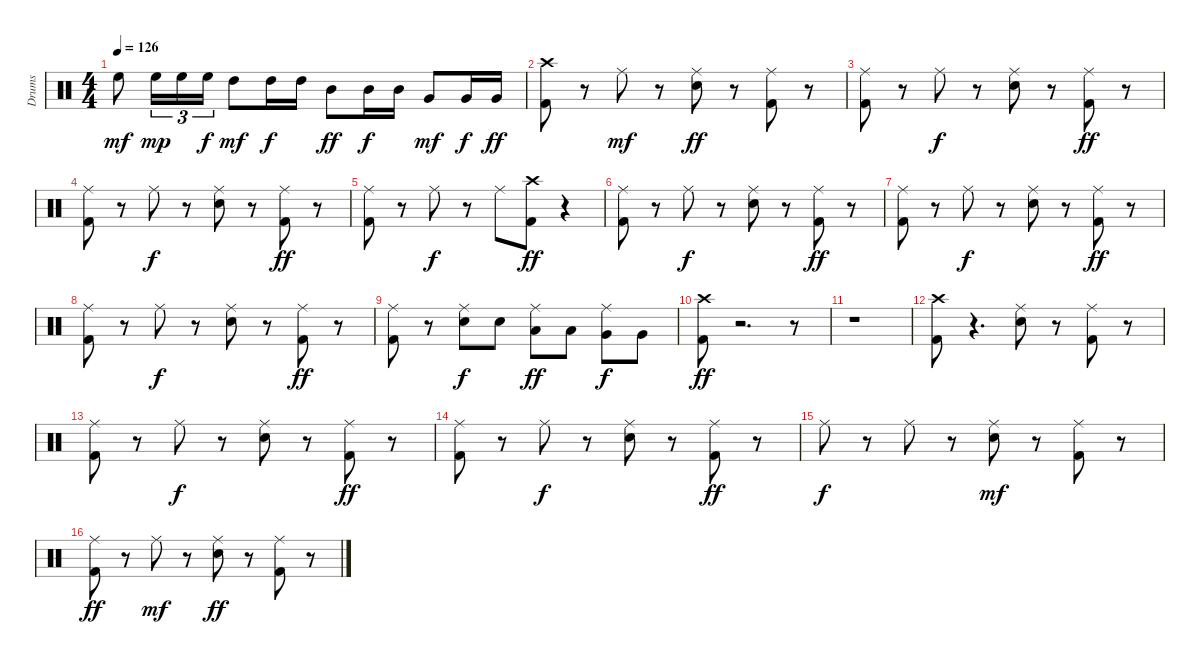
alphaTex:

\track ("Drums" "Drums") {instrument percussion}
\staff {score}
\articulation defaults
\ts (4 4)
\tempo 126
\clef neutral
\ks c "High Floor Tom (hit)".8{dy mf} "High Floor Tom (hit)".16{tu (3 2) dy mp} "High Floor Tom (hit)".16{tu (3 2)} "High Floor Tom (hit)".16{tu (3 2) dy f} "High Tom (hit)".8{dy mf} "High Tom (hit)".16{dy f} "High Tom (hit)".16 "Mid Tom (hit)".8{dy ff} "Mid Tom (hit)".16{dy f} "Mid Tom (hit)".16 "Very Low Tom (hit)".8{dy mf} "Very Low Tom (hit)".16{dy f} "Very Low Tom (hit)".16{dy ff}
|
("Kick (hit) 2" "Crash high (hit)").8 r.8 "Ride (middle)".8{dy mf} r.8 ("Snare (hit) 2" "Ride (middle)").8{dy ff} r.8 ("Kick (hit) 2" "Ride (middle)").8 r.8 |
("Kick (hit) 2" "Ride (middle)").8 r.8 "Ride (middle)".8{dy f} r.8 ("Snare (hit) 2" "Ride (middle)").8 r.8 ("Kick (hit) 2" "Ride (middle)").8{dy ff} r.8 |
("Kick (hit) 2" "Ride (middle)").8 r.8 "Ride (middle)".8{dy f} r.8 ("Snare (hit) 2" "Ride (middle)").8 r.8 ("Kick (hit) 2" "Ride (middle)").8{dy ff} r.8 |
("Kick (hit) 2" "Ride (middle)").8 r.8 "Ride (middle)".8{dy f} r.8 "Ride (middle)".8 ("Kick (hit) 2" "Crash high (hit)").8{dy ff} r.4 |
("Kick (hit) 2" "Ride (middle)").8 r.8 "Ride (middle)".8{dy f} r.8 ("Snare (hit) 2" "Ride (middle)").8 r.8 ("Kick (hit) 2" "Ride (middle)").8{dy ff} r.8 |
("Kick (hit) 2" "Ride (middle)").8 r.8 "Ride (middle)".8{dy f} r.8 ("Snare (hit) 2" "Ride (middle)").8 r.8 ("Kick (hit) 2" "Ride (middle)").8{dy ff} r.8 |
("Kick (hit) 2" "Ride (middle)").8 r.8 "Ride (middle)".8{dy f} r.8 ("Snare (hit) 2" "Ride (middle)").8 r.8 ("Kick (hit) 2" "Ride (middle)").8{dy ff} r.8 |
("Kick (hit) 2" "Ride (middle)").8 r.8 ("Snare (hit) 2" "Ride (middle)").8{dy f} "Snare (hit) 2".8 ("Low Tom (hit)" "Ride (middle)").8{dy ff} "Low Tom (hit)".8 ("Very Low Tom (hit)" "Ride (middle)").8{dy f} "Very Low Tom (hit)".8 |
("Kick (hit) 2" "Crash high (hit)").8{dy ff} r.2{d} r.8 |
r.1 |
("Kick (hit) 2" "Crash high (hit)").8 r.4{d} ("Snare (hit) 2" "Ride (middle)").8 r.8 ("Kick (hit) 2" "Ride (middle)").8 r.8 |
("Kick (hit) 2" "Ride (middle)").8 r.8 "Ride (middle)".8{dy f} r.8 ("Snare (hit) 2" "Ride (middle)").8 r.8 ("Kick (hit) 2" "Ride (middle)").8{dy ff} r.8 |
("Kick (hit) 2" "Ride (middle)").8 r.8 "Ride (middle)".8{dy f} r.8 ("Snare (hit) 2" "Ride (middle)").8 r.8 ("Kick (hit) 2" "Ride (middle)").8{dy ff} r.8 |
"Ride (middle)".8{dy f} r.8 "Ride (middle)".8 r.8 ("Snare (hit) 2" "Ride (middle)").8{dy mf} r.8 ("Kick (hit) 2" "Ride (middle)").8 r.8 |
("Kick (hit) 2" "Ride (middle)").8{dy ff} r.8 "Ride (middle)".8{dy mf} r.8 ("Snare (hit) 2" "Ride (middle)").8{dy ff} r.8 ("Kick (hit) 2" "Ride (middle)").8 r.8
